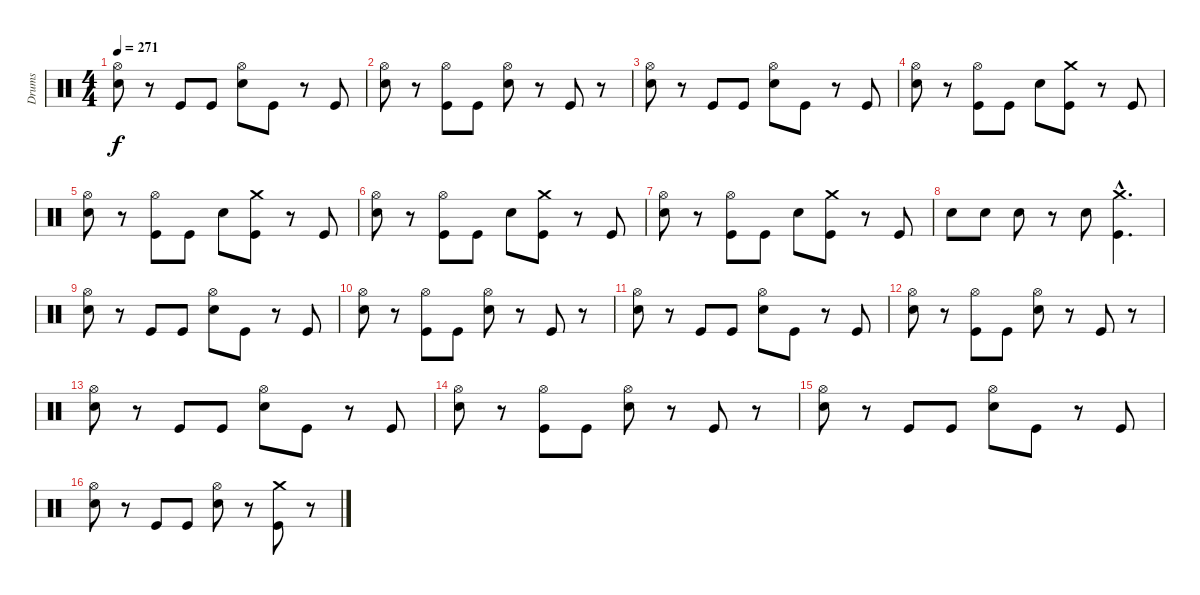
\track ("Drums" "Drums") {instrument percussion}
\staff {score}
\articulation defaults
\ts (4 4)
\tempo 271
\clef neutral
\ks c
("Hi-Hat (open)" "Electric Snare (hit)").8{dy f} r.8 "Kick (hit)".8 "Kick (hit)".8 ("Hi-Hat (open)" "Electric Snare (hit)").8 "Kick (hit)".8 r.8 "Kick (hit)".8 |
("Hi-Hat (open)" "Electric Snare (hit)").8 r.8 ("Hi-Hat (open)" "Kick (hit)").8 "Kick (hit)".8 ("Hi-Hat (open)" "Electric Snare (hit)").8 r.8 "Kick (hit)".8 r.8 |
("Hi-Hat (open)" "Electric Snare (hit)").8 r.8 "Kick (hit)".8 "Kick (hit)".8 ("Hi-Hat (open)" "Electric Snare (hit)").8 "Kick (hit)".8 r.8 "Kick (hit)".8 |
("Hi-Hat (open)" "Electric Snare (hit)").8 r.8 ("Hi-Hat (open)" "Kick (hit)").8 "Kick (hit)".8 "Electric Snare (hit)".8 ("Crash medium (hit)" "Kick (hit)").8 r.8 "Kick (hit)".8 |
("Hi-Hat (open)" "Electric Snare (hit)").8 r.8 ("Hi-Hat (open)" "Kick (hit)").8 "Kick (hit)".8 "Electric Snare (hit)".8 ("Crash medium (hit)" "Kick (hit)").8 r.8 "Kick (hit)".8 |
("Hi-Hat (open)" "Electric Snare (hit)").8 r.8 ("Hi-Hat (open)" "Kick (hit)").8 "Kick (hit)".8 "Electric Snare (hit)".8 ("Crash medium (hit)" "Kick (hit)").8 r.8 "Kick (hit)".8 |
("Hi-Hat (open)" "Electric Snare (hit)").8 r.8 ("Hi-Hat (open)" "Kick (hit)").8 "Kick (hit)".8 "Electric Snare (hit)".8 ("Crash medium (hit)" "Kick (hit)").8 r.8 "Kick (hit)".8 |
"Electric Snare (hit)".8 "Electric Snare (hit)".8 "Electric Snare (hit)".8 r.8 "Electric Snare (hit)".8 ("Crash medium (hit)"{hac} "Kick (hit)"{hac}).4{d} |
("Hi-Hat (open)" "Electric Snare (hit)").8 r.8 "Kick (hit)".8 "Kick (hit)".8 ("Hi-Hat (open)" "Electric Snare (hit)").8 "Kick (hit)".8 r.8 "Kick (hit)".8 |
("Hi-Hat (open)" "Electric Snare (hit)").8 r.8 ("Hi-Hat (open)" "Kick (hit)").8 "Kick (hit)".8 ("Hi-Hat (open)" "Electric Snare (hit)").8 r.8 "Kick (hit)".8 r.8 |
("Hi-Hat (open)" "Electric Snare (hit)").8 r.8 "Kick (hit)".8 "Kick (hit)".8 ("Hi-Hat (open)" "Electric Snare (hit)").8 "Kick (hit)".8 r.8 "Kick (hit)".8 |
("Hi-Hat (open)" "Electric Snare (hit)").8 r.8 ("Hi-Hat (open)" "Kick (hit)").8 "Kick (hit)".8 ("Hi-Hat (open)" "Electric Snare (hit)").8 r.8 "Kick (hit)".8 r.8 |
("Hi-Hat (open)" "Electric Snare (hit)").8 r.8 "Kick (hit)".8 "Kick (hit)".8 ("Hi-Hat (open)" "Electric Snare (hit)").8 "Kick (hit)".8 r.8 "Kick (hit)".8 |
("Hi-Hat (open)" "Electric Snare (hit)").8 r.8 ("Hi-Hat (open)" "Kick (hit)").8 "Kick (hit)".8 ("Hi-Hat (open)" "Electric Snare (hit)").8 r.8 "Kick (hit)".8 r.8 |
("Hi-Hat (open)" "Electric Snare (hit)").8 r.8 "Kick (hit)".8 "Kick (hit)".8 ("Hi-Hat (open)" "Electric Snare (hit)").8 "Kick (hit)".8 r.8 "Kick (hit)".8 |
("Hi-Hat (open)" "Electric Snare (hit)").8 r.8 "Kick (hit)".8 "Kick (hit)".8 ("Hi-Hat (open)" "Electric Snare (hit)").8 r.8 ("Crash medium (hit)" "Kick (hit)").8 r.8
